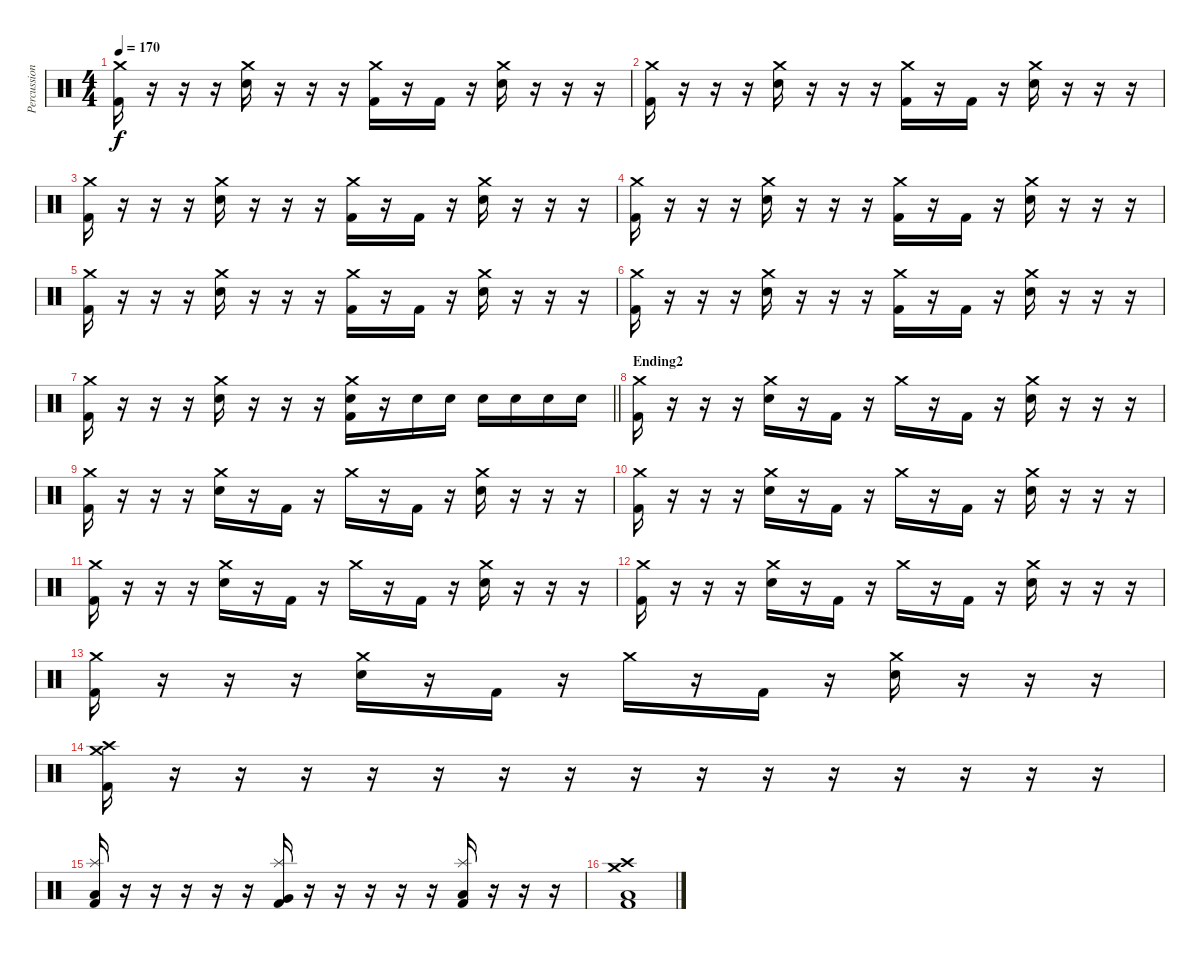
\track ("Percussion" "Percussion") {instrument percussion}
\staff {score}
\articulation defaults
\ts (4 4)
\tempo 170
\clef neutral
\ks c
("Crash medium (hit)" "Kick (hit) 2").16{dy f} r.16 r.16 r.16 ("Crash medium (hit)" "Electric Snare (hit)").16 r.16 r.16 r.16 ("Crash medium (hit)" "Kick (hit) 2").16 r.16 "Kick (hit) 2".16 r.16 ("Crash medium (hit)" "Electric Snare (hit)").16 r.16 r.16 r.16 |
("Crash medium (hit)" "Kick (hit) 2").16 r.16 r.16 r.16 ("Crash medium (hit)" "Electric Snare (hit)").16 r.16 r.16 r.16 ("Crash medium (hit)" "Kick (hit) 2").16 r.16 "Kick (hit) 2".16 r.16 ("Crash medium (hit)" "Electric Snare (hit)").16 r.16 r.16 r.16 |
("Crash medium (hit)" "Kick (hit) 2").16 r.16 r.16 r.16 ("Crash medium (hit)" "Electric Snare (hit)").16 r.16 r.16 r.16 ("Crash medium (hit)" "Kick (hit) 2").16 r.16 "Kick (hit) 2".16 r.16 ("Crash medium (hit)" "Electric Snare (hit)").16 r.16 r.16 r.16 |
("Crash medium (hit)" "Kick (hit) 2").16 r.16 r.16 r.16 ("Crash medium (hit)" "Electric Snare (hit)").16 r.16 r.16 r.16 ("Crash medium (hit)" "Kick (hit) 2").16 r.16 "Kick (hit) 2".16 r.16 ("Crash medium (hit)" "Electric Snare (hit)").16 r.16 r.16 r.16 |
("Crash medium (hit)" "Kick (hit) 2").16 r.16 r.16 r.16 ("Crash medium (hit)" "Electric Snare (hit)").16 r.16 r.16 r.16 ("Crash medium (hit)" "Kick (hit) 2").16 r.16 "Kick (hit) 2".16 r.16 ("Crash medium (hit)" "Electric Snare (hit)").16 r.16 r.16 r.16 |
("Crash medium (hit)" "Kick (hit) 2").16 r.16 r.16 r.16 ("Crash medium (hit)" "Electric Snare (hit)").16 r.16 r.16 r.16 ("Crash medium (hit)" "Kick (hit) 2").16 r.16 "Kick (hit) 2".16 r.16 ("Crash medium (hit)" "Electric Snare (hit)").16 r.16 r.16 r.16 |
\barLineRight lightlight
("Crash medium (hit)" "Kick (hit) 2").16 r.16 r.16 r.16 ("Crash medium (hit)" "Electric Snare (hit)").16 r.16 r.16 r.16 ("Crash medium (hit)" "Electric Snare (hit)" "Kick (hit) 2").16 r.16 "Electric Snare (hit)".16 "Electric Snare (hit)".16 "Electric Snare (hit)".16 "Electric Snare (hit)".16 "Electric Snare (hit)".16 "Electric Snare (hit)".16 |
\section ("" "Ending2")
("Crash medium (hit)" "Kick (hit) 2").16 r.16 r.16 r.16 ("Crash medium (hit)" "Electric Snare (hit)").16 r.16 "Kick (hit) 2".16 r.16 "Crash medium (hit)".16 r.16 "Kick (hit) 2".16 r.16 ("Crash medium (hit)" "Electric Snare (hit)").16 r.16 r.16 r.16 |
("Crash medium (hit)" "Kick (hit) 2").16 r.16 r.16 r.16 ("Crash medium (hit)" "Electric Snare (hit)").16 r.16 "Kick (hit) 2".16 r.16 "Crash medium (hit)".16 r.16 "Kick (hit) 2".16 r.16 ("Crash medium (hit)" "Electric Snare (hit)").16 r.16 r.16 r.16 |
("Crash medium (hit)" "Kick (hit) 2").16 r.16 r.16 r.16 ("Crash medium (hit)" "Electric Snare (hit)").16 r.16 "Kick (hit) 2".16 r.16 "Crash medium (hit)".16 r.16 "Kick (hit) 2".16 r.16 ("Crash medium (hit)" "Electric Snare (hit)").16 r.16 r.16 r.16 |
("Crash medium (hit)" "Kick (hit) 2").16 r.16 r.16 r.16 ("Crash medium (hit)" "Electric Snare (hit)").16 r.16 "Kick (hit) 2".16 r.16 "Crash medium (hit)".16 r.16 "Kick (hit) 2".16 r.16 ("Crash medium (hit)" "Electric Snare (hit)").16 r.16 r.16 r.16 |
("Crash medium (hit)" "Kick (hit) 2").16 r.16 r.16 r.16 ("Crash medium (hit)" "Electric Snare (hit)").16 r.16 "Kick (hit) 2".16 r.16 "Crash medium (hit)".16 r.16 "Kick (hit) 2".16 r.16 ("Crash medium (hit)" "Electric Snare (hit)").16 r.16 r.16 r.16 |
("Crash medium (hit)" "Kick (hit) 2").16 r.16 r.16 r.16 ("Crash medium (hit)" "Electric Snare (hit)").16 r.16 "Kick (hit) 2".16 r.16 "Crash medium (hit)".16 r.16 "Kick (hit) 2".16 r.16 ("Crash medium (hit)" "Electric Snare (hit)").16 r.16 r.16 r.16 |
("Crash medium (hit)" "Crash high (hit)" "Kick (hit) 2").16 r.16 r.16 r.16 r.16 r.16 r.16 r.16 r.16 r.16 r.16 r.16 r.16 r.16 r.16 r.16 |
("Splash (hit)" "Low Tom (hit)" "Kick (hit) 2").16 r.16 r.16 r.16 r.16 r.16 ("Splash (hit)" "Very Low Tom (hit)" "Kick (hit) 2").16 r.16 r.16 r.16 r.16 r.16 ("Splash (hit)" "Low Floor Tom (hit)" "Kick (hit) 2").16 r.16 r.16 r.16 |
("Crash medium (hit)" "Crash high (hit)" "Low Floor Tom (hit)" "Kick (hit) 2").1
